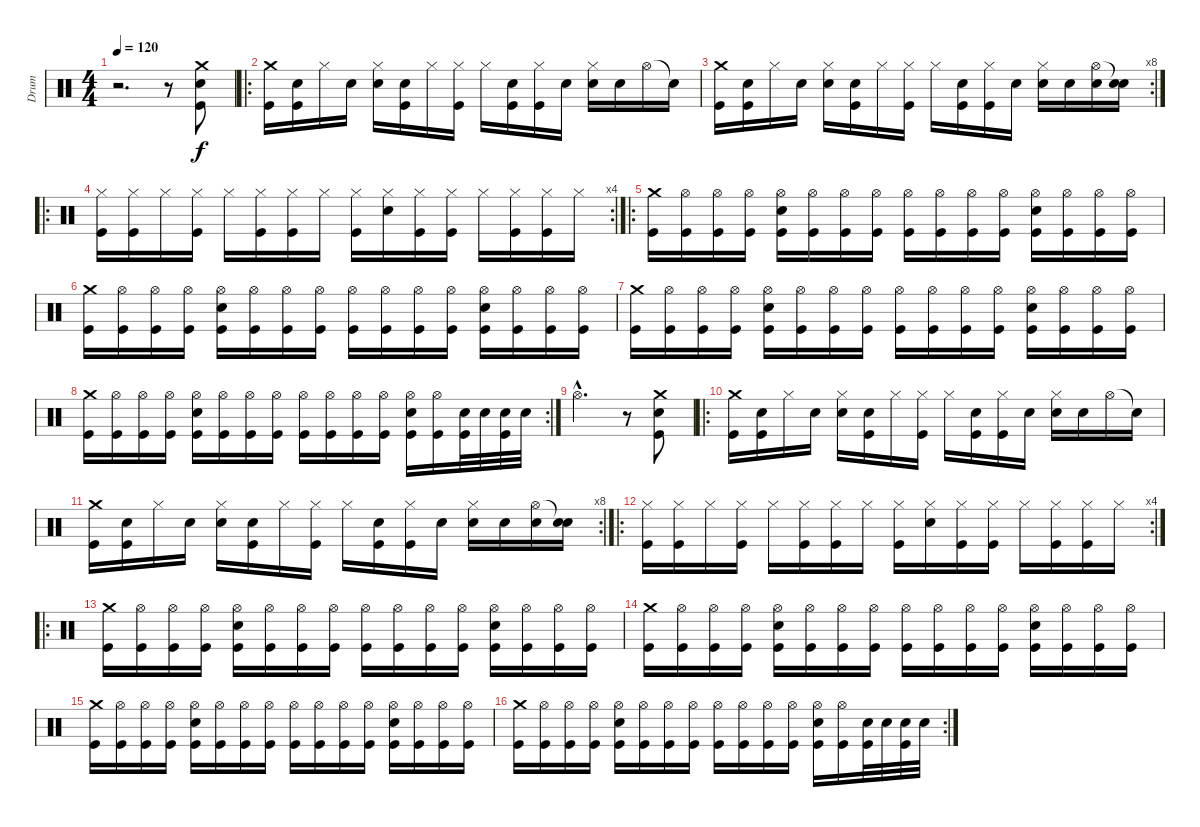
\track ("Drum" "Drum") {instrument percussion}
\staff {score}
\articulation defaults
\ts (4 4)
\tempo 120
\clef neutral
\ks c
r.2{d dy f} r.8 ("Crash medium (hit)" "Snare (hit) 2" "Kick (hit)").8 |
\ro
("Crash medium (hit)" "Kick (hit)").16 ("Snare (hit)" "Kick (hit)").16 "Hi-Hat (closed)".16 "Snare (hit)".16 ("Hi-Hat (closed)" "Snare (hit) 2").16 ("Snare (hit)" "Kick (hit)").16 "Hi-Hat (closed)".16 ("Hi-Hat (closed)" "Kick (hit)").16 "Hi-Hat (closed)".16 ("Snare (hit)" "Kick (hit)").16 ("Hi-Hat (closed)" "Kick (hit)").16 "Snare (hit)".16 ("Hi-Hat (closed)" "Snare (hit) 2").16 "Snare (hit)".16 "Hi-Hat (open)".16 "Snare (hit)"{t}.16 |
\rc 8
("Crash medium (hit)" "Kick (hit)").16 ("Snare (hit)" "Kick (hit)").16 "Hi-Hat (closed)".16 "Snare (hit)".16 ("Hi-Hat (closed)" "Snare (hit) 2").16 ("Snare (hit)" "Kick (hit)").16 "Hi-Hat (closed)".16 ("Hi-Hat (closed)" "Kick (hit)").16 "Hi-Hat (closed)".16 ("Snare (hit)" "Kick (hit)").16 ("Hi-Hat (closed)" "Kick (hit)").16 "Snare (hit)".16 ("Hi-Hat (closed)" "Snare (hit) 2").16 "Snare (hit)".16 ("Hi-Hat (open)" "Snare (hit) 2").16 ("Snare (hit)"{t} "Snare (hit) 2").16 |
\ro
\rc 4
("Hi-Hat (closed)" "Kick (hit)").16 ("Hi-Hat (closed)" "Kick (hit)").16 "Hi-Hat (closed)".16 ("Hi-Hat (closed)" "Kick (hit)").16 "Hi-Hat (closed)".16 ("Hi-Hat (closed)" "Kick (hit)").16 ("Hi-Hat (closed)" "Kick (hit)").16 "Hi-Hat (closed)".16 ("Hi-Hat (closed)" "Kick (hit)").16 ("Hi-Hat (closed)" "Snare (hit) 2").16 ("Hi-Hat (closed)" "Kick (hit)").16 ("Hi-Hat (closed)" "Kick (hit)").16 "Hi-Hat (closed)".16 ("Hi-Hat (closed)" "Kick (hit)").16 ("Hi-Hat (closed)" "Kick (hit)").16 "Hi-Hat (closed)".16 |
\ro
("Crash medium (hit)" "Kick (hit)").16 ("Hi-Hat (open)" "Kick (hit)").16 ("Hi-Hat (open)" "Kick (hit)").16 ("Hi-Hat (open)" "Kick (hit)").16 ("Hi-Hat (open)" "Snare (hit) 2" "Kick (hit)").16 ("Hi-Hat (open)" "Kick (hit)").16 ("Hi-Hat (open)" "Kick (hit)").16 ("Hi-Hat (open)" "Kick (hit)").16 ("Hi-Hat (open)" "Kick (hit)").16 ("Hi-Hat (open)" "Kick (hit)").16 ("Hi-Hat (open)" "Kick (hit)").16 ("Hi-Hat (open)" "Kick (hit)").16 ("Hi-Hat (open)" "Snare (hit) 2" "Kick (hit)").16 ("Hi-Hat (open)" "Kick (hit)").16 ("Hi-Hat (open)" "Kick (hit)").16 ("Hi-Hat (open)" "Kick (hit)").16 |
("Crash medium (hit)" "Kick (hit)").16 ("Hi-Hat (open)" "Kick (hit)").16 ("Hi-Hat (open)" "Kick (hit)").16 ("Hi-Hat (open)" "Kick (hit)").16 ("Hi-Hat (open)" "Snare (hit) 2" "Kick (hit)").16 ("Hi-Hat (open)" "Kick (hit)").16 ("Hi-Hat (open)" "Kick (hit)").16 ("Hi-Hat (open)" "Kick (hit)").16 ("Hi-Hat (open)" "Kick (hit)").16 ("Hi-Hat (open)" "Kick (hit)").16 ("Hi-Hat (open)" "Kick (hit)").16 ("Hi-Hat (open)" "Kick (hit)").16 ("Hi-Hat (open)" "Snare (hit) 2" "Kick (hit)").16 ("Hi-Hat (open)" "Kick (hit)").16 ("Hi-Hat (open)" "Kick (hit)").16 ("Hi-Hat (open)" "Kick (hit)").16 |
("Crash medium (hit)" "Kick (hit)").16 ("Hi-Hat (open)" "Kick (hit)").16 ("Hi-Hat (open)" "Kick (hit)").16 ("Hi-Hat (open)" "Kick (hit)").16 ("Hi-Hat (open)" "Snare (hit) 2" "Kick (hit)").16 ("Hi-Hat (open)" "Kick (hit)").16 ("Hi-Hat (open)" "Kick (hit)").16 ("Hi-Hat (open)" "Kick (hit)").16 ("Hi-Hat (open)" "Kick (hit)").16 ("Hi-Hat (open)" "Kick (hit)").16 ("Hi-Hat (open)" "Kick (hit)").16 ("Hi-Hat (open)" "Kick (hit)").16 ("Hi-Hat (open)" "Snare (hit) 2" "Kick (hit)").16 ("Hi-Hat (open)" "Kick (hit)").16 ("Hi-Hat (open)" "Kick (hit)").16 ("Hi-Hat (open)" "Kick (hit)").16 |
\rc 2
("Crash medium (hit)" "Kick (hit)").16 ("Hi-Hat (open)" "Kick (hit)").16 ("Hi-Hat (open)" "Kick (hit)").16 ("Hi-Hat (open)" "Kick (hit)").16 ("Hi-Hat (open)" "Snare (hit) 2" "Kick (hit)").16 ("Hi-Hat (open)" "Kick (hit)").16 ("Hi-Hat (open)" "Kick (hit)").16 ("Hi-Hat (open)" "Kick (hit)").16 ("Hi-Hat (open)" "Kick (hit)").16 ("Hi-Hat (open)" "Kick (hit)").16 ("Hi-Hat (open)" "Kick (hit)").16 ("Hi-Hat (open)" "Kick (hit)").16 ("Hi-Hat (open)" "Snare (hit) 2" "Kick (hit)").16 ("Hi-Hat (open)" "Kick (hit)").16 ("Snare (hit) 2" "Kick (hit)").32 "Snare (hit) 2".32 ("Snare (hit) 2" "Kick (hit)").32 "Snare (hit) 2".32 |
"Hi-Hat (open)"{hac}.2{d} r.8 ("Crash medium (hit)" "Snare (hit) 2" "Kick (hit)").8 |
\ro
("Crash medium (hit)" "Kick (hit)").16 ("Snare (hit)" "Kick (hit)").16 "Hi-Hat (closed)".16 "Snare (hit)".16 ("Hi-Hat (closed)" "Snare (hit) 2").16 ("Snare (hit)" "Kick (hit)").16 "Hi-Hat (closed)".16 ("Hi-Hat (closed)" "Kick (hit)").16 "Hi-Hat (closed)".16 ("Snare (hit)" "Kick (hit)").16 ("Hi-Hat (closed)" "Kick (hit)").16 "Snare (hit)".16 ("Hi-Hat (closed)" "Snare (hit) 2").16 "Snare (hit)".16 "Hi-Hat (open)".16 "Snare (hit)"{t}.16 |
\rc 8
("Crash medium (hit)" "Kick (hit)").16 ("Snare (hit)" "Kick (hit)").16 "Hi-Hat (closed)".16 "Snare (hit)".16 ("Hi-Hat (closed)" "Snare (hit) 2").16 ("Snare (hit)" "Kick (hit)").16 "Hi-Hat (closed)".16 ("Hi-Hat (closed)" "Kick (hit)").16 "Hi-Hat (closed)".16 ("Snare (hit)" "Kick (hit)").16 ("Hi-Hat (closed)" "Kick (hit)").16 "Snare (hit)".16 ("Hi-Hat (closed)" "Snare (hit) 2").16 "Snare (hit)".16 ("Hi-Hat (open)" "Snare (hit) 2").16 ("Snare (hit)"{t} "Snare (hit) 2").16 |
\ro
\rc 4
("Hi-Hat (closed)" "Kick (hit)").16 ("Hi-Hat (closed)" "Kick (hit)").16 "Hi-Hat (closed)".16 ("Hi-Hat (closed)" "Kick (hit)").16 "Hi-Hat (closed)".16 ("Hi-Hat (closed)" "Kick (hit)").16 ("Hi-Hat (closed)" "Kick (hit)").16 "Hi-Hat (closed)".16 ("Hi-Hat (closed)" "Kick (hit)").16 ("Hi-Hat (closed)" "Snare (hit) 2").16 ("Hi-Hat (closed)" "Kick (hit)").16 ("Hi-Hat (closed)" "Kick (hit)").16 "Hi-Hat (closed)".16 ("Hi-Hat (closed)" "Kick (hit)").16 ("Hi-Hat (closed)" "Kick (hit)").16 "Hi-Hat (closed)".16 |
\ro
("Crash medium (hit)" "Kick (hit)").16 ("Hi-Hat (open)" "Kick (hit)").16 ("Hi-Hat (open)" "Kick (hit)").16 ("Hi-Hat (open)" "Kick (hit)").16 ("Hi-Hat (open)" "Snare (hit) 2" "Kick (hit)").16 ("Hi-Hat (open)" "Kick (hit)").16 ("Hi-Hat (open)" "Kick (hit)").16 ("Hi-Hat (open)" "Kick (hit)").16 ("Hi-Hat (open)" "Kick (hit)").16 ("Hi-Hat (open)" "Kick (hit)").16 ("Hi-Hat (open)" "Kick (hit)").16 ("Hi-Hat (open)" "Kick (hit)").16 ("Hi-Hat (open)" "Snare (hit) 2" "Kick (hit)").16 ("Hi-Hat (open)" "Kick (hit)").16 ("Hi-Hat (open)" "Kick (hit)").16 ("Hi-Hat (open)" "Kick (hit)").16 |
("Crash medium (hit)" "Kick (hit)").16 ("Hi-Hat (open)" "Kick (hit)").16 ("Hi-Hat (open)" "Kick (hit)").16 ("Hi-Hat (open)" "Kick (hit)").16 ("Hi-Hat (open)" "Snare (hit) 2" "Kick (hit)").16 ("Hi-Hat (open)" "Kick (hit)").16 ("Hi-Hat (open)" "Kick (hit)").16 ("Hi-Hat (open)" "Kick (hit)").16 ("Hi-Hat (open)" "Kick (hit)").16 ("Hi-Hat (open)" "Kick (hit)").16 ("Hi-Hat (open)" "Kick (hit)").16 ("Hi-Hat (open)" "Kick (hit)").16 ("Hi-Hat (open)" "Snare (hit) 2" "Kick (hit)").16 ("Hi-Hat (open)" "Kick (hit)").16 ("Hi-Hat (open)" "Kick (hit)").16 ("Hi-Hat (open)" "Kick (hit)").16 |
("Crash medium (hit)" "Kick (hit)").16 ("Hi-Hat (open)" "Kick (hit)").16 ("Hi-Hat (open)" "Kick (hit)").16 ("Hi-Hat (open)" "Kick (hit)").16 ("Hi-Hat (open)" "Snare (hit) 2" "Kick (hit)").16 ("Hi-Hat (open)" "Kick (hit)").16 ("Hi-Hat (open)" "Kick (hit)").16 ("Hi-Hat (open)" "Kick (hit)").16 ("Hi-Hat (open)" "Kick (hit)").16 ("Hi-Hat (open)" "Kick (hit)").16 ("Hi-Hat (open)" "Kick (hit)").16 ("Hi-Hat (open)" "Kick (hit)").16 ("Hi-Hat (open)" "Snare (hit) 2" "Kick (hit)").16 ("Hi-Hat (open)" "Kick (hit)").16 ("Hi-Hat (open)" "Kick (hit)").16 ("Hi-Hat (open)" "Kick (hit)").16 |
\rc 2
("Crash medium (hit)" "Kick (hit)").16 ("Hi-Hat (open)" "Kick (hit)").16 ("Hi-Hat (open)" "Kick (hit)").16 ("Hi-Hat (open)" "Kick (hit)").16 ("Hi-Hat (open)" "Snare (hit) 2" "Kick (hit)").16 ("Hi-Hat (open)" "Kick (hit)").16 ("Hi-Hat (open)" "Kick (hit)").16 ("Hi-Hat (open)" "Kick (hit)").16 ("Hi-Hat (open)" "Kick (hit)").16 ("Hi-Hat (open)" "Kick (hit)").16 ("Hi-Hat (open)" "Kick (hit)").16 ("Hi-Hat (open)" "Kick (hit)").16 ("Hi-Hat (open)" "Snare (hit) 2" "Kick (hit)").16 ("Hi-Hat (open)" "Kick (hit)").16 ("Snare (hit) 2" "Kick (hit)").32 "Snare (hit) 2".32 ("Snare (hit) 2" "Kick (hit)").32 "Snare (hit) 2".32
